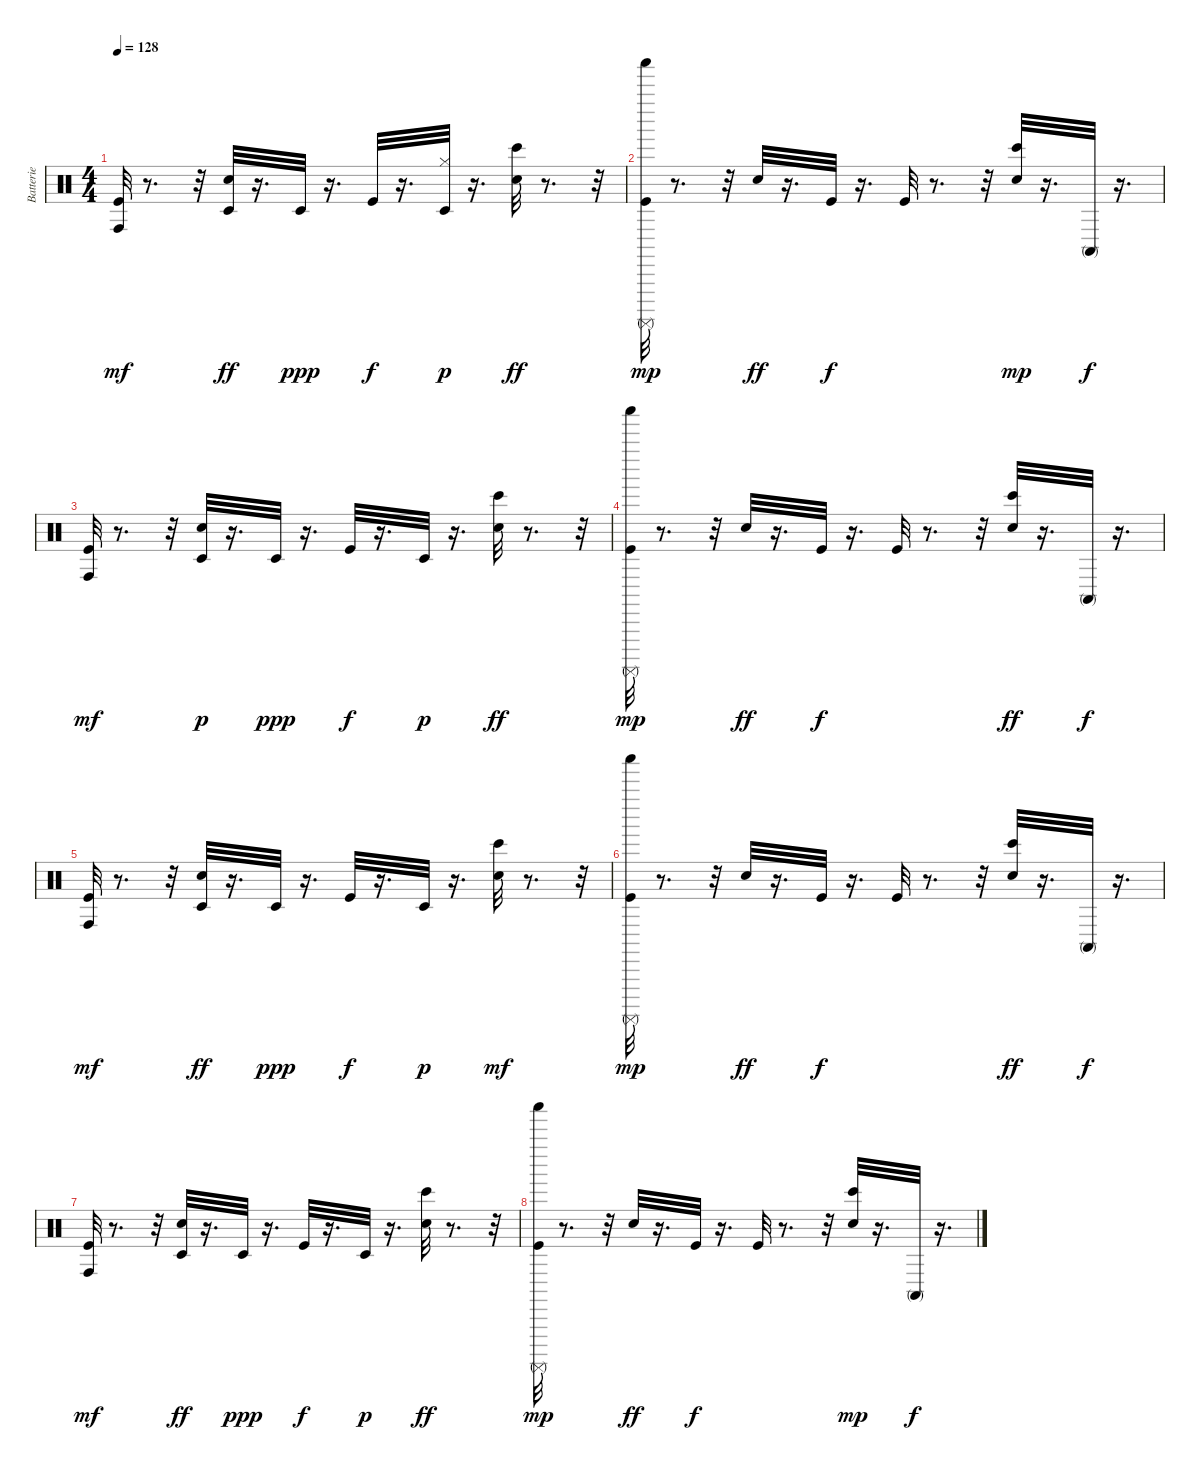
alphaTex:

\track ("Batterie" "Batterie") {instrument percussion}
\staff {score}
\articulation defaults
\ts (4 4)
\tempo 128
\clef neutral
\ks c
("Kick (hit)" "Conga high (hit)").32{dy mf} r.8{d} r.32 ("Timbale low (hit)" "Electric Snare (hit)").32{dy ff} r.16{d} "Timbale low (hit)".32{dy ppp} r.16{d} "Kick (hit)".32{dy f} r.16{d} ("Hi-Hat (closed)" "Timbale low (hit)").32{dy p} r.16{d} ("Bongo High (hit)" "Electric Snare (hit)").32{dy ff} r.8{d} r.32 |
("Surdo (mute)" "Shaker (hit)" "Kick (hit)").32{dy mp} r.8{d} r.32 "Electric Snare (hit)".32{dy ff} r.16{d} "Kick (hit)".32{dy f} r.16{d} "Kick (hit)".32 r.8{d} r.32 ("Electric Snare (hit)" "Bongo High (hit)").32{dy mp} r.16{d} "Conga high (mute)".32{dy f} r.16{d} |
("Kick (hit)" "Conga high (hit)").32{dy mf} r.8{d} r.32 ("Electric Snare (hit)" "Timbale low (hit)").32{dy p} r.16{d} "Timbale low (hit)".32{dy ppp} r.16{d} "Kick (hit)".32{dy f} r.16{d} "Timbale low (hit)".32{dy p} r.16{d} ("Bongo High (hit)" "Electric Snare (hit)").32{dy ff} r.8{d} r.32 |
("Shaker (hit)" "Kick (hit)" "Surdo (mute)").32{dy mp} r.8{d} r.32 "Electric Snare (hit)".32{dy ff} r.16{d} "Kick (hit)".32{dy f} r.16{d} "Kick (hit)".32 r.8{d} r.32 ("Bongo High (hit)" "Electric Snare (hit)").32{dy ff} r.16{d} "Conga high (mute)".32{dy f} r.16{d} |
("Kick (hit)" "Conga high (hit)").32{dy mf} r.8{d} r.32 ("Timbale low (hit)" "Electric Snare (hit)").32{dy ff} r.16{d} "Timbale low (hit)".32{dy ppp} r.16{d} "Kick (hit)".32{dy f} r.16{d} "Timbale low (hit)".32{dy p} r.16{d} ("Electric Snare (hit)" "Bongo High (hit)").32{dy mf} r.8{d} r.32 |
("Kick (hit)" "Surdo (mute)" "Shaker (hit)").32{dy mp} r.8{d} r.32 "Electric Snare (hit)".32{dy ff} r.16{d} "Kick (hit)".32{dy f} r.16{d} "Kick (hit)".32 r.8{d} r.32 ("Bongo High (hit)" "Electric Snare (hit)").32{dy ff} r.16{d} "Conga high (mute)".32{dy f} r.16{d} |
("Conga high (hit)" "Kick (hit)").32{dy mf} r.8{d} r.32 ("Timbale low (hit)" "Electric Snare (hit)").32{dy ff} r.16{d} "Timbale low (hit)".32{dy ppp} r.16{d} "Kick (hit)".32{dy f} r.16{d} "Timbale low (hit)".32{dy p} r.16{d} ("Bongo High (hit)" "Electric Snare (hit)").32{dy ff} r.8{d} r.32 |
("Kick (hit)" "Shaker (hit)" "Surdo (mute)").32{dy mp} r.8{d} r.32 "Electric Snare (hit)".32{dy ff} r.16{d} "Kick (hit)".32{dy f} r.16{d} "Kick (hit)".32 r.8{d} r.32 ("Electric Snare (hit)" "Bongo High (hit)").32{dy mp} r.16{d} "Conga high (mute)".32{dy f} r.16{d}
